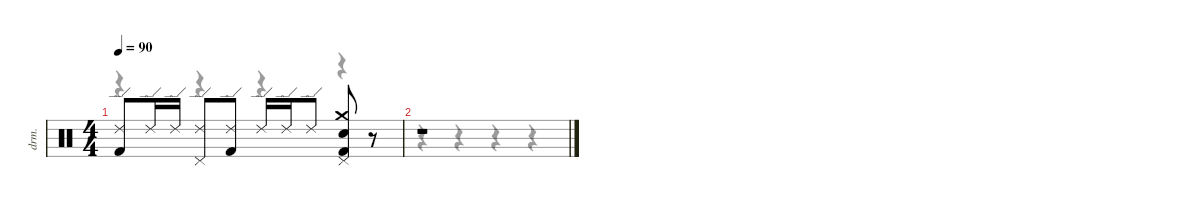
\defaultSystemsLayout 4
\hideDynamics
\bracketExtendMode nobrackets
\otherSystemsTrackNameOrientation horizontal
\track ("Percussion" "drm.") {instrument percussion}
\staff {score}
\articulation defaults
\voice
\ts (4 4)
\tempo 90
\clef neutral
\ks c
("Ride (edge) 2" "Kick (hit) 2").8{dy f} "Ride (edge) 2".16 "Ride (edge) 2".16 ("Ride (edge) 2" "Pedal Hi-Hat (hit)").8 ("Ride (edge) 2" "Kick (hit) 2").8 "Ride (edge) 2".16 "Ride (edge) 2".16 "Ride (edge) 2".8 ("Crash medium (hit)" "Pedal Hi-Hat (hit)" "Snare (hit) 2" "Kick (hit) 2").8 r.8 |
r.1
\voice
\clef neutral
\ottava regular
\simile none
\ks c
r.4{dy mf} r.4 r.4 r.4 |
r.4 r.4 r.4 r.4
